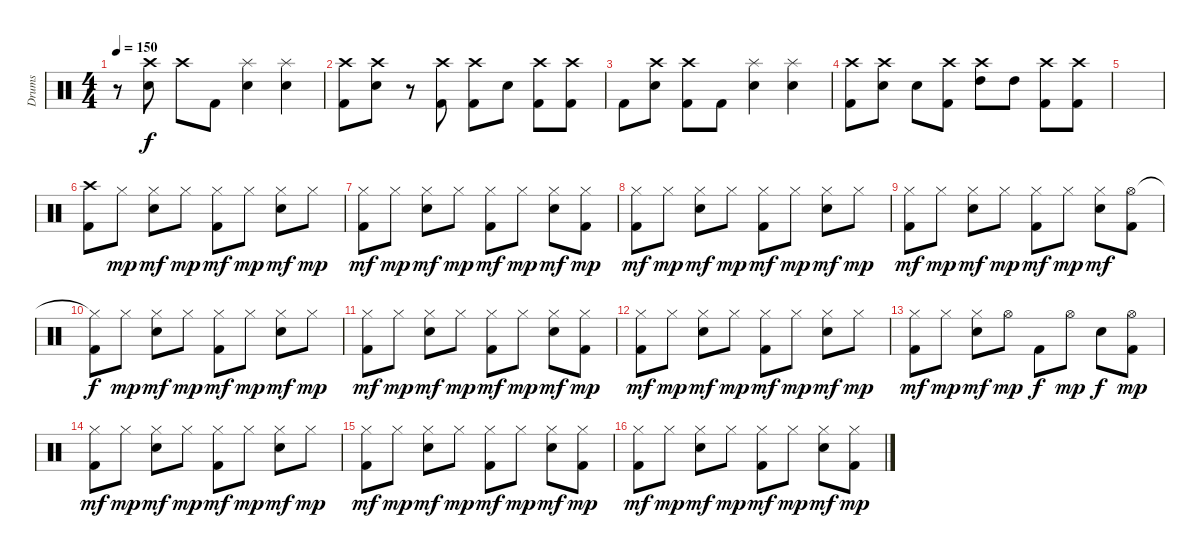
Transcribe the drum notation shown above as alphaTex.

\track ("Drums" "Drums") {instrument percussion}
\staff {score}
\articulation defaults
\ts (4 4)
\tempo 150
\clef neutral
\ks c
r.8{dy f} ("Crash high (hit)" "Electric Snare (hit)").8 "Crash high (hit)".8 "Kick (hit) 2".8 ("Splash (hit)" "Electric Snare (hit)").4 ("Splash (hit)" "Electric Snare (hit)").4 |
("Crash high (hit)" "Kick (hit) 2").8 ("Crash high (hit)" "Electric Snare (hit)").8 r.8 ("Crash high (hit)" "Kick (hit) 2").8 ("Crash high (hit)" "Kick (hit) 2").8 "Electric Snare (hit)".8 ("Crash high (hit)" "Kick (hit) 2").8 ("Crash high (hit)" "Kick (hit) 2").8 |
"Kick (hit) 2".8 ("Crash high (hit)" "Electric Snare (hit)").8 ("Crash high (hit)" "Kick (hit) 2").8 "Kick (hit) 2".8 ("Splash (hit)" "Electric Snare (hit)").4 ("Splash (hit)" "Electric Snare (hit)").4 |
("Crash high (hit)" "Kick (hit) 2").8 ("Crash high (hit)" "Electric Snare (hit)").8 "Electric Snare (hit)".8 ("Crash high (hit)" "Kick (hit) 2").8 ("Crash high (hit)" "High Tom (hit)").8 "High Tom (hit)".8 ("Crash high (hit)" "Kick (hit) 2").8 ("Crash high (hit)" "Kick (hit) 2").8 |
|
("Crash high (hit)" "Kick (hit) 2").8 "Hi-Hat (closed)".8{dy mp} ("Hi-Hat (closed)" "Electric Snare (hit)").8{dy mf} "Hi-Hat (closed)".8{dy mp} ("Hi-Hat (closed)" "Kick (hit) 2").8{dy mf} "Hi-Hat (closed)".8{dy mp} ("Hi-Hat (closed)" "Electric Snare (hit)").8{dy mf} "Hi-Hat (closed)".8{dy mp} |
("Hi-Hat (closed)" "Kick (hit) 2").8{dy mf} "Hi-Hat (closed)".8{dy mp} ("Hi-Hat (closed)" "Electric Snare (hit)").8{dy mf} "Hi-Hat (closed)".8{dy mp} ("Hi-Hat (closed)" "Kick (hit) 2").8{dy mf} "Hi-Hat (closed)".8{dy mp} ("Hi-Hat (closed)" "Electric Snare (hit)").8{dy mf} ("Hi-Hat (closed)" "Kick (hit) 2").8{dy mp} |
("Hi-Hat (closed)" "Kick (hit) 2").8{dy mf} "Hi-Hat (closed)".8{dy mp} ("Hi-Hat (closed)" "Electric Snare (hit)").8{dy mf} "Hi-Hat (closed)".8{dy mp} ("Hi-Hat (closed)" "Kick (hit) 2").8{dy mf} "Hi-Hat (closed)".8{dy mp} ("Hi-Hat (closed)" "Electric Snare (hit)").8{dy mf} "Hi-Hat (closed)".8{dy mp} |
("Hi-Hat (closed)" "Kick (hit) 2").8{dy mf} "Hi-Hat (closed)".8{dy mp} ("Hi-Hat (closed)" "Electric Snare (hit)").8{dy mf} "Hi-Hat (closed)".8{dy mp} ("Hi-Hat (closed)" "Kick (hit) 2").8{dy mf} "Hi-Hat (closed)".8{dy mp} ("Hi-Hat (closed)" "Electric Snare (hit)").8{dy mf} ("Hi-Hat (open)" "Kick (hit) 2").8 |
("Hi-Hat (closed)"{t} "Kick (hit) 2").8{dy f} "Hi-Hat (closed)".8{dy mp} ("Hi-Hat (closed)" "Electric Snare (hit)").8{dy mf} "Hi-Hat (closed)".8{dy mp} ("Hi-Hat (closed)" "Kick (hit) 2").8{dy mf} "Hi-Hat (closed)".8{dy mp} ("Hi-Hat (closed)" "Electric Snare (hit)").8{dy mf} "Hi-Hat (closed)".8{dy mp} |
("Hi-Hat (closed)" "Kick (hit) 2").8{dy mf} "Hi-Hat (closed)".8{dy mp} ("Hi-Hat (closed)" "Electric Snare (hit)").8{dy mf} "Hi-Hat (closed)".8{dy mp} ("Hi-Hat (closed)" "Kick (hit) 2").8{dy mf} "Hi-Hat (closed)".8{dy mp} ("Hi-Hat (closed)" "Electric Snare (hit)").8{dy mf} ("Hi-Hat (closed)" "Kick (hit) 2").8{dy mp} |
("Hi-Hat (closed)" "Kick (hit) 2").8{dy mf} "Hi-Hat (closed)".8{dy mp} ("Hi-Hat (closed)" "Electric Snare (hit)").8{dy mf} "Hi-Hat (closed)".8{dy mp} ("Hi-Hat (closed)" "Kick (hit) 2").8{dy mf} "Hi-Hat (closed)".8{dy mp} ("Hi-Hat (closed)" "Electric Snare (hit)").8{dy mf} "Hi-Hat (closed)".8{dy mp} |
("Hi-Hat (closed)" "Kick (hit) 2").8{dy mf} "Hi-Hat (closed)".8{dy mp} ("Hi-Hat (closed)" "Electric Snare (hit)").8{dy mf} "Hi-Hat (open)".8{dy mp} "Kick (hit) 2".8{dy f} "Hi-Hat (open)".8{dy mp} "Electric Snare (hit)".8{dy f} ("Hi-Hat (open)" "Kick (hit) 2").8{dy mp} |
("Hi-Hat (closed)" "Kick (hit) 2").8{dy mf} "Hi-Hat (closed)".8{dy mp} ("Hi-Hat (closed)" "Electric Snare (hit)").8{dy mf} "Hi-Hat (closed)".8{dy mp} ("Hi-Hat (closed)" "Kick (hit) 2").8{dy mf} "Hi-Hat (closed)".8{dy mp} ("Hi-Hat (closed)" "Electric Snare (hit)").8{dy mf} "Hi-Hat (closed)".8{dy mp} |
("Hi-Hat (closed)" "Kick (hit) 2").8{dy mf} "Hi-Hat (closed)".8{dy mp} ("Hi-Hat (closed)" "Electric Snare (hit)").8{dy mf} "Hi-Hat (closed)".8{dy mp} ("Hi-Hat (closed)" "Kick (hit) 2").8{dy mf} "Hi-Hat (closed)".8{dy mp} ("Hi-Hat (closed)" "Electric Snare (hit)").8{dy mf} ("Hi-Hat (closed)" "Kick (hit) 2").8{dy mp} |
("Hi-Hat (closed)" "Kick (hit) 2").8{dy mf} "Hi-Hat (closed)".8{dy mp} ("Hi-Hat (closed)" "Electric Snare (hit)").8{dy mf} "Hi-Hat (closed)".8{dy mp} ("Hi-Hat (closed)" "Kick (hit) 2").8{dy mf} "Hi-Hat (closed)".8{dy mp} ("Hi-Hat (closed)" "Electric Snare (hit)").8{dy mf} ("Hi-Hat (closed)" "Kick (hit) 2").8{dy mp}
